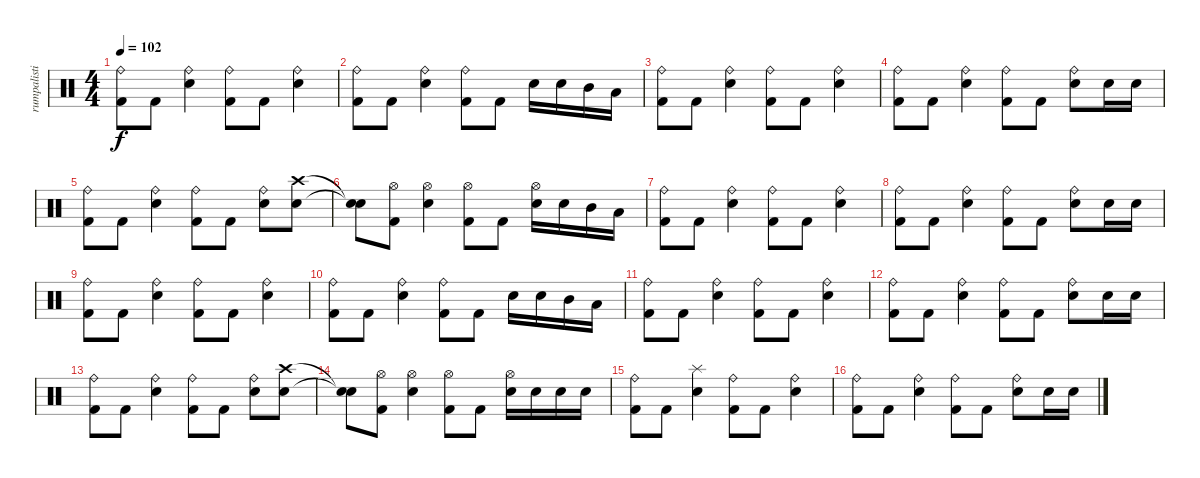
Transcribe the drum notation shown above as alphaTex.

\track ("rumpalisti" "rumpalisti") {instrument percussion}
\staff {score}
\articulation defaults
\ts (4 4)
\tempo 102
\clef neutral
\ks c
("Kick (hit) 2" "Ride (bell)").8{dy f} "Kick (hit) 2".8 ("Ride (bell)" "Snare (hit) 2").4 ("Kick (hit) 2" "Ride (bell)").8 "Kick (hit) 2".8 ("Ride (bell)" "Snare (hit) 2").4 |
("Kick (hit) 2" "Ride (bell)").8 "Kick (hit) 2".8 ("Ride (bell)" "Snare (hit) 2").4 ("Kick (hit) 2" "Ride (bell)").8 "Kick (hit) 2".8 "Snare (hit) 2".16 "Snare (hit) 2".16 "Mid Tom (hit)".16 "Low Tom (hit)".16 |
("Kick (hit) 2" "Ride (bell)").8 "Kick (hit) 2".8 ("Ride (bell)" "Snare (hit) 2").4 ("Kick (hit) 2" "Ride (bell)").8 "Kick (hit) 2".8 ("Ride (bell)" "Snare (hit) 2").4 |
("Kick (hit) 2" "Ride (bell)").8 "Kick (hit) 2".8 ("Ride (bell)" "Snare (hit) 2").4 ("Kick (hit) 2" "Ride (bell)").8 "Kick (hit) 2".8 ("Ride (bell)" "Snare (hit) 2").8 "Snare (hit) 2".16 "Snare (hit) 2".16 |
("Kick (hit) 2" "Ride (bell)").8 "Kick (hit) 2".8 ("Ride (bell)" "Snare (hit) 2").4 ("Kick (hit) 2" "Ride (bell)").8 "Kick (hit) 2".8 ("Ride (bell)" "Snare (hit) 2").8 ("Crash high (hit)" "Snare (hit) 2").8 |
("Snare (hit)"{t} "Snare (hit)"{t}).8 ("Kick (hit) 2" "Hi-Hat (open)").8 ("Hi-Hat (open)" "Snare (hit) 2").4 ("Kick (hit) 2" "Hi-Hat (open)").8 "Kick (hit) 2".8 ("Hi-Hat (open)" "Snare (hit) 2").16 "Snare (hit) 2".16 "Mid Tom (hit)".16 "Low Tom (hit)".16 |
("Kick (hit) 2" "Ride (bell)").8 "Kick (hit) 2".8 ("Ride (bell)" "Snare (hit) 2").4 ("Kick (hit) 2" "Ride (bell)").8 "Kick (hit) 2".8 ("Ride (bell)" "Snare (hit) 2").4 |
("Kick (hit) 2" "Ride (bell)").8 "Kick (hit) 2".8 ("Ride (bell)" "Snare (hit) 2").4 ("Kick (hit) 2" "Ride (bell)").8 "Kick (hit) 2".8 ("Ride (bell)" "Snare (hit) 2").8 "Snare (hit) 2".16 "Snare (hit) 2".16 |
("Kick (hit) 2" "Ride (bell)").8 "Kick (hit) 2".8 ("Ride (bell)" "Snare (hit) 2").4 ("Kick (hit) 2" "Ride (bell)").8 "Kick (hit) 2".8 ("Ride (bell)" "Snare (hit) 2").4 |
("Kick (hit) 2" "Ride (bell)").8 "Kick (hit) 2".8 ("Ride (bell)" "Snare (hit) 2").4 ("Kick (hit) 2" "Ride (bell)").8 "Kick (hit) 2".8 "Snare (hit) 2".16 "Snare (hit) 2".16 "Mid Tom (hit)".16 "Low Tom (hit)".16 |
("Kick (hit) 2" "Ride (bell)").8 "Kick (hit) 2".8 ("Ride (bell)" "Snare (hit) 2").4 ("Kick (hit) 2" "Ride (bell)").8 "Kick (hit) 2".8 ("Ride (bell)" "Snare (hit) 2").4 |
("Kick (hit) 2" "Ride (bell)").8 "Kick (hit) 2".8 ("Ride (bell)" "Snare (hit) 2").4 ("Kick (hit) 2" "Ride (bell)").8 "Kick (hit) 2".8 ("Ride (bell)" "Snare (hit) 2").8 "Snare (hit) 2".16 "Snare (hit) 2".16 |
("Kick (hit) 2" "Ride (bell)").8 "Kick (hit) 2".8 ("Ride (bell)" "Snare (hit) 2").4 ("Kick (hit) 2" "Ride (bell)").8 "Kick (hit) 2".8 ("Ride (bell)" "Snare (hit) 2").8 ("Crash high (hit)" "Snare (hit) 2").8 |
("Snare (hit)"{t} "Snare (hit)"{t}).8 ("Kick (hit) 2" "Hi-Hat (open)").8 ("Hi-Hat (open)" "Snare (hit) 2").4 ("Kick (hit) 2" "Hi-Hat (open)").8 "Kick (hit) 2".8 ("Hi-Hat (open)" "Snare (hit) 2").16 "Snare (hit) 2".16 "Snare (hit) 2".16 "Snare (hit) 2".16 |
("Kick (hit) 2" "Ride (bell)").8 "Kick (hit) 2".8 ("Splash (hit)" "Snare (hit) 2").4 ("Kick (hit) 2" "Ride (bell)").8 "Kick (hit) 2".8 ("Ride (bell)" "Snare (hit) 2").4 |
("Kick (hit) 2" "Ride (bell)").8 "Kick (hit) 2".8 ("Ride (bell)" "Snare (hit) 2").4 ("Kick (hit) 2" "Ride (bell)").8 "Kick (hit) 2".8 ("Ride (bell)" "Snare (hit) 2").8 "Snare (hit) 2".16 "Snare (hit) 2".16
